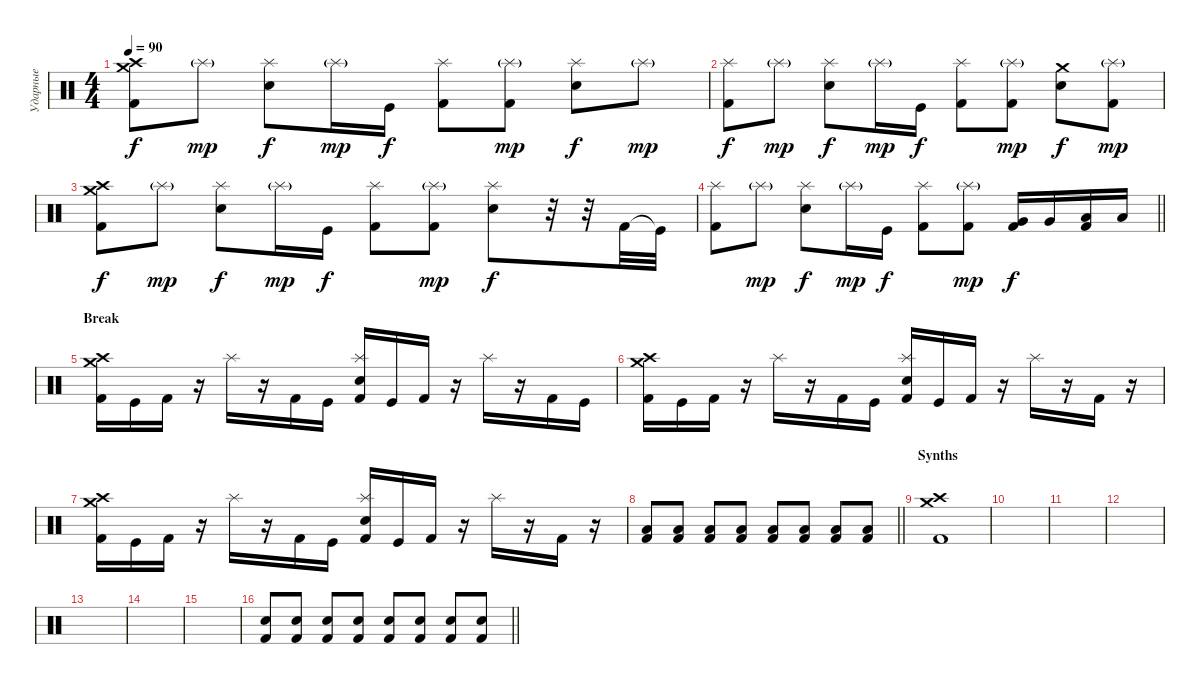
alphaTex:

\track ("Ударные" "Ударные") {instrument percussion}
\staff {score}
\articulation defaults
\ts (4 4)
\tempo 90
\clef neutral
\ks c
("Crash medium (hit)" "Crash high (hit)" "Kick (hit) 2").8{dy f} "Splash (hit)"{g}.8{dy mp} ("Splash (hit)" "Electric Snare (hit)").8{dy f} "Splash (hit)"{g}.16{dy mp} "Kick (hit)".16{dy f} ("Splash (hit)" "Kick (hit) 2").8 ("Splash (hit)"{g} "Kick (hit) 2").8{dy mp} ("Splash (hit)" "Electric Snare (hit)").8{dy f} "Splash (hit)"{g}.8{dy mp} |
("Splash (hit)" "Kick (hit) 2").8{dy f} "Splash (hit)"{g}.8{dy mp} ("Splash (hit)" "Electric Snare (hit)").8{dy f} "Splash (hit)"{g}.16{dy mp} "Kick (hit)".16{dy f} ("Splash (hit)" "Kick (hit) 2").8 ("Splash (hit)"{g} "Kick (hit) 2").8{dy mp} ("Crash medium (hit)" "Electric Snare (hit)").8{dy f} ("Splash (hit)"{g} "Kick (hit) 2").8{dy mp} |
("Crash medium (hit)" "Crash high (hit)" "Kick (hit) 2").8{dy f} "Splash (hit)"{g}.8{dy mp} ("Splash (hit)" "Electric Snare (hit)").8{dy f} "Splash (hit)"{g}.16{dy mp} "Kick (hit)".16{dy f} ("Splash (hit)" "Kick (hit) 2").8 ("Splash (hit)"{g} "Kick (hit) 2").8{dy mp} ("Splash (hit)" "Electric Snare (hit)").8{dy f} r.32 r.32 "Kick (hit) 2".32 "Kick (hit)"{t}.32 |
\barLineRight lightlight
("Splash (hit)" "Kick (hit) 2").8 "Splash (hit)"{g}.8{dy mp} ("Splash (hit)" "Electric Snare (hit)").8{dy f} "Splash (hit)"{g}.16{dy mp} "Kick (hit)".16{dy f} ("Splash (hit)" "Kick (hit) 2").8 ("Splash (hit)"{g} "Kick (hit) 2").8{dy mp} ("Very Low Tom (hit)" "Kick (hit) 2").16{dy f} "Very Low Tom (hit)".16 ("Low Floor Tom (hit)" "Kick (hit) 2").16 "Low Floor Tom (hit)".16 |
\section ("" "Break")
("Crash high (hit)" "Crash medium (hit)" "Kick (hit) 2").16 "Kick (hit)".16 "Kick (hit) 2".16 r.16 "Splash (hit)".16 r.16 "Kick (hit) 2".16 "Kick (hit)".16 ("Splash (hit)" "Electric Snare (hit)" "Kick (hit) 2").16 "Kick (hit)".16 "Kick (hit) 2".16 r.16 "Splash (hit)".16 r.16 "Kick (hit) 2".16 "Kick (hit)".16 |
("Crash high (hit)" "Crash medium (hit)" "Kick (hit) 2").16 "Kick (hit)".16 "Kick (hit) 2".16 r.16 "Splash (hit)".16 r.16 "Kick (hit) 2".16 "Kick (hit)".16 ("Splash (hit)" "Electric Snare (hit)" "Kick (hit) 2").16 "Kick (hit)".16 "Kick (hit) 2".16 r.16 "Splash (hit)".16 r.16 "Kick (hit) 2".16 r.16 |
("Crash high (hit)" "Crash medium (hit)" "Kick (hit) 2").16 "Kick (hit)".16 "Kick (hit) 2".16 r.16 "Splash (hit)".16 r.16 "Kick (hit) 2".16 "Kick (hit)".16 ("Splash (hit)" "Electric Snare (hit)" "Kick (hit) 2").16 "Kick (hit)".16 "Kick (hit) 2".16 r.16 "Splash (hit)".16 r.16 "Kick (hit) 2".16 r.16 |
\barLineRight lightlight
("Low Floor Tom (hit)" "Kick (hit) 2").8 ("Low Floor Tom (hit)" "Kick (hit) 2").8 ("Low Floor Tom (hit)" "Kick (hit) 2").8 ("Low Floor Tom (hit)" "Kick (hit) 2").8 ("Low Floor Tom (hit)" "Kick (hit) 2").8 ("Low Floor Tom (hit)" "Kick (hit) 2").8 ("Low Floor Tom (hit)" "Kick (hit) 2").8 ("Low Floor Tom (hit)" "Kick (hit) 2").8 |
\section ("" "Synths")
("Crash high (hit)" "Crash medium (hit)" "Kick (hit) 2").1 |
|
|
|
|
|
|
\barLineRight lightlight
("Electric Snare (hit)" "Kick (hit) 2").8 ("Electric Snare (hit)" "Kick (hit) 2").8 ("Electric Snare (hit)" "Kick (hit) 2").8 ("Electric Snare (hit)" "Kick (hit) 2").8 ("Electric Snare (hit)" "Kick (hit) 2").8 ("Electric Snare (hit)" "Kick (hit) 2").8 ("Electric Snare (hit)" "Kick (hit) 2").8 ("Electric Snare (hit)" "Kick (hit) 2").8
